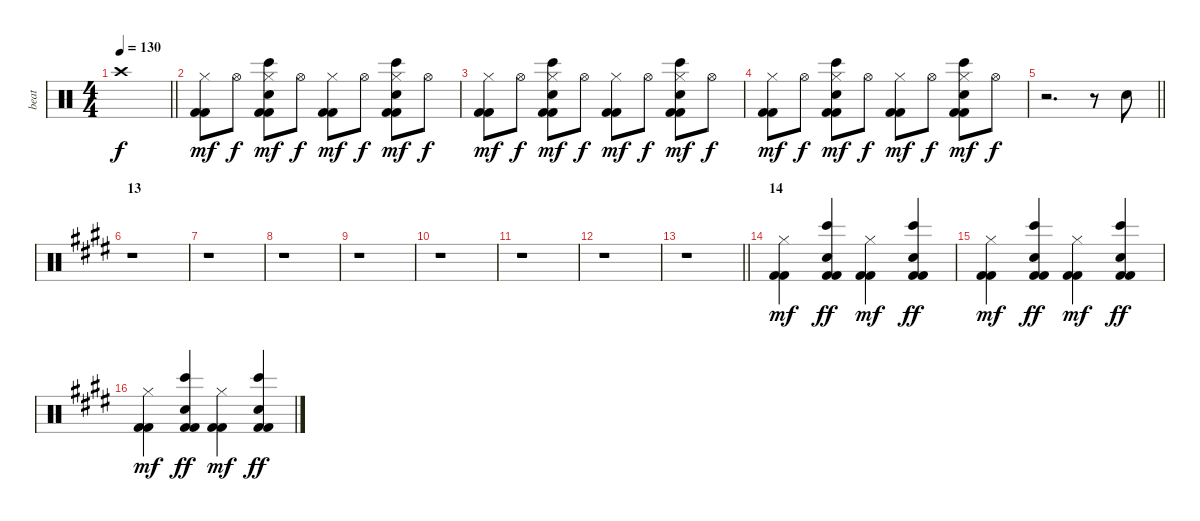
\track ("beat" "beat") {instrument percussion}
\staff {score}
\articulation defaults
\ts (4 4)
\tempo 130
\clef neutral
\barLineRight lightlight
\ks c "Crash high (hit)".1{dy f}
|
("Kick (hit) 2" "Kick (hit) 2" "Hi-Hat (closed)").8{dy mf} "Hi-Hat (open)".8{dy f} ("Kick (hit) 2" "Kick (hit) 2" "Bongo High (hit)" "Hand Clap (hit)" "Hi-Hat (closed)").8{dy mf} "Hi-Hat (open)".8{dy f} ("Kick (hit) 2" "Kick (hit) 2" "Hi-Hat (closed)").8{dy mf} "Hi-Hat (open)".8{dy f} ("Kick (hit) 2" "Kick (hit) 2" "Bongo High (hit)" "Hand Clap (hit)" "Hi-Hat (closed)").8{dy mf} "Hi-Hat (open)".8{dy f} |
("Kick (hit) 2" "Kick (hit) 2" "Hi-Hat (closed)").8{dy mf} "Hi-Hat (open)".8{dy f} ("Kick (hit) 2" "Kick (hit) 2" "Bongo High (hit)" "Hand Clap (hit)" "Hi-Hat (closed)").8{dy mf} "Hi-Hat (open)".8{dy f} ("Kick (hit) 2" "Kick (hit) 2" "Hi-Hat (closed)").8{dy mf} "Hi-Hat (open)".8{dy f} ("Kick (hit) 2" "Kick (hit) 2" "Bongo High (hit)" "Hand Clap (hit)" "Hi-Hat (closed)").8{dy mf} "Hi-Hat (open)".8{dy f} |
("Kick (hit) 2" "Kick (hit) 2" "Hi-Hat (closed)").8{dy mf} "Hi-Hat (open)".8{dy f} ("Kick (hit) 2" "Kick (hit) 2" "Bongo High (hit)" "Hand Clap (hit)" "Hi-Hat (closed)").8{dy mf} "Hi-Hat (open)".8{dy f} ("Kick (hit) 2" "Kick (hit) 2" "Hi-Hat (closed)").8{dy mf} "Hi-Hat (open)".8{dy f} ("Kick (hit) 2" "Kick (hit) 2" "Bongo High (hit)" "Hand Clap (hit)" "Hi-Hat (closed)").8{dy mf} "Hi-Hat (open)".8{dy f} |
\barLineRight lightlight
r.2{d} r.8 "Electric Snare (hit)".8 |
\section ("" "13")
\ks e
r.1 |
r.1 |
r.1 |
r.1 |
r.1 |
r.1 |
r.1 |
\barLineRight lightlight
r.1 |
\section ("" "14")
("Kick (hit) 2" "Kick (hit) 2" "Hi-Hat (closed)").4{dy mf} ("Kick (hit) 2" "Kick (hit) 2" "Bongo High (hit)" "Hand Clap (hit)").4{dy ff} ("Kick (hit) 2" "Kick (hit) 2" "Hi-Hat (closed)").4{dy mf} ("Kick (hit) 2" "Kick (hit) 2" "Bongo High (hit)" "Hand Clap (hit)").4{dy ff} |
("Kick (hit) 2" "Kick (hit) 2" "Hi-Hat (closed)").4{dy mf} ("Kick (hit) 2" "Kick (hit) 2" "Bongo High (hit)" "Hand Clap (hit)").4{dy ff} ("Kick (hit) 2" "Kick (hit) 2" "Hi-Hat (closed)").4{dy mf} ("Kick (hit) 2" "Kick (hit) 2" "Bongo High (hit)" "Hand Clap (hit)").4{dy ff} |
("Kick (hit) 2" "Kick (hit) 2" "Hi-Hat (closed)").4{dy mf} ("Kick (hit) 2" "Kick (hit) 2" "Bongo High (hit)" "Hand Clap (hit)").4{dy ff} ("Kick (hit) 2" "Kick (hit) 2" "Hi-Hat (closed)").4{dy mf} ("Kick (hit) 2" "Kick (hit) 2" "Bongo High (hit)" "Hand Clap (hit)").4{dy ff}
